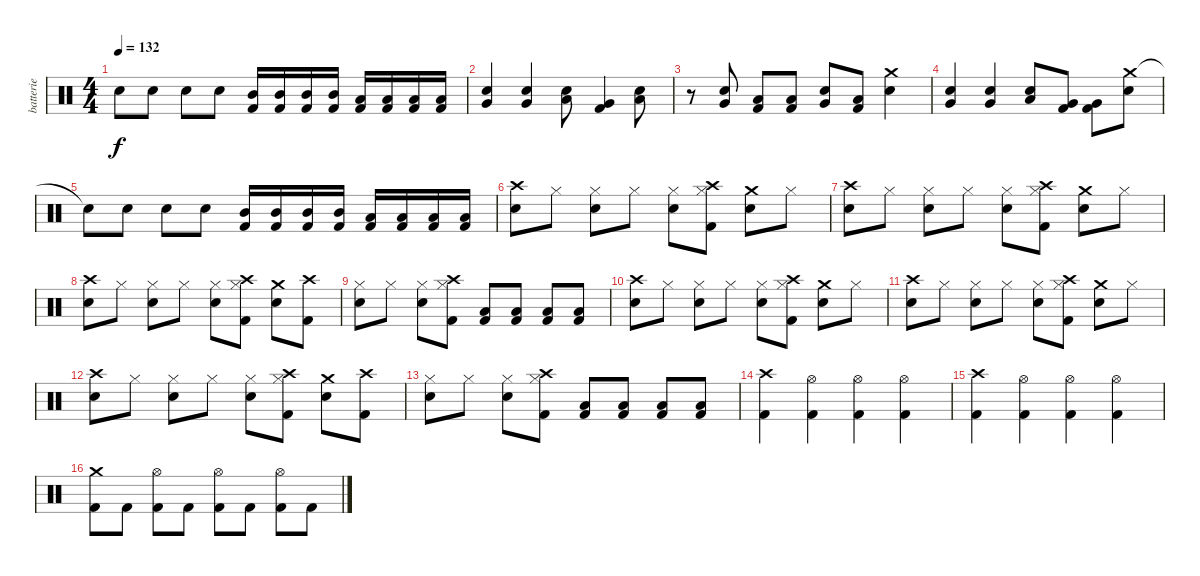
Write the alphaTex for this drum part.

\track ("batterie" "batterie") {instrument percussion}
\staff {score}
\articulation defaults
\ts (4 4)
\tempo 132
\clef neutral
\ks c "Snare (hit)"{t}.8{dy f} "Electric Snare (hit)".8 "Electric Snare (hit)".8 "Electric Snare (hit)".8
("Mid Tom (hit)" "Kick (hit) 2").16 ("Mid Tom (hit)" "Kick (hit) 2").16 ("Mid Tom (hit)" "Kick (hit) 2").16 ("Mid Tom (hit)" "Kick (hit) 2").16 ("Low Tom (hit)" "Kick (hit) 2").16 ("Low Tom (hit)" "Kick (hit) 2").16 ("Low Tom (hit)" "Kick (hit) 2").16 ("Low Tom (hit)" "Kick (hit) 2").16 |
("Very Low Tom (hit)" "Electric Snare (hit)").4 ("Very Low Tom (hit)" "Electric Snare (hit)").4 ("Low Tom (hit)" "Electric Snare (hit)").8 ("Very Low Tom (hit)" "Kick (hit) 2").4 ("Low Tom (hit)" "Electric Snare (hit)").8 |
r.8 ("Very Low Tom (hit)" "Electric Snare (hit)").8 ("Low Tom (hit)" "Kick (hit) 2").8 ("Low Tom (hit)" "Kick (hit) 2").8 ("Very Low Tom (hit)" "Electric Snare (hit)").8 ("Low Tom (hit)" "Kick (hit) 2").8 ("Crash medium (hit)" "Electric Snare (hit)").4 |
("Very Low Tom (hit)" "Electric Snare (hit)").4 ("Very Low Tom (hit)" "Electric Snare (hit)").4 ("Low Tom (hit)" "Electric Snare (hit)").8 ("Very Low Tom (hit)" "Kick (hit) 2").8 ("Very Low Tom (hit)" "Kick (hit) 2").8 ("Crash medium (hit)" "Electric Snare (hit)").8 |
"Snare (hit)"{t}.8 "Electric Snare (hit)".8 "Electric Snare (hit)".8 "Electric Snare (hit)".8 ("Mid Tom (hit)" "Kick (hit) 2").16 ("Mid Tom (hit)" "Kick (hit) 2").16 ("Mid Tom (hit)" "Kick (hit) 2").16 ("Mid Tom (hit)" "Kick (hit) 2").16 ("Low Tom (hit)" "Kick (hit) 2").16 ("Low Tom (hit)" "Kick (hit) 2").16 ("Low Tom (hit)" "Kick (hit) 2").16 ("Low Tom (hit)" "Kick (hit) 2").16 |
("Crash high (hit)" "Electric Snare (hit)").8 "Hi-Hat (closed)".8 ("Electric Snare (hit)" "Hi-Hat (closed)").8 "Hi-Hat (closed)".8 ("Electric Snare (hit)" "Hi-Hat (closed)").8 ("Crash high (hit)" "Kick (hit) 2" "Hi-Hat (closed)").8 ("Crash medium (hit)" "Electric Snare (hit)").8 "Hi-Hat (closed)".8 |
("Crash high (hit)" "Electric Snare (hit)").8 "Hi-Hat (closed)".8 ("Electric Snare (hit)" "Hi-Hat (closed)").8 "Hi-Hat (closed)".8 ("Electric Snare (hit)" "Hi-Hat (closed)").8 ("Crash high (hit)" "Kick (hit) 2" "Hi-Hat (closed)").8 ("Crash medium (hit)" "Electric Snare (hit)").8 "Hi-Hat (closed)".8 |
("Crash high (hit)" "Electric Snare (hit)").8 "Hi-Hat (closed)".8 ("Electric Snare (hit)" "Hi-Hat (closed)").8 "Hi-Hat (closed)".8 ("Electric Snare (hit)" "Hi-Hat (closed)").8 ("Crash high (hit)" "Kick (hit) 2" "Hi-Hat (closed)").8 ("Crash medium (hit)" "Electric Snare (hit)").8 ("Crash high (hit)" "Kick (hit) 2").8 |
("Electric Snare (hit)" "Hi-Hat (closed)").8 "Hi-Hat (closed)".8 ("Electric Snare (hit)" "Hi-Hat (closed)").8 ("Crash high (hit)" "Kick (hit) 2" "Hi-Hat (closed)").8 ("Low Tom (hit)" "Kick (hit) 2").8 ("Low Tom (hit)" "Kick (hit) 2").8 ("Low Tom (hit)" "Kick (hit) 2").8 ("Low Tom (hit)" "Kick (hit) 2").8 |
("Crash high (hit)" "Electric Snare (hit)").8 "Hi-Hat (closed)".8 ("Electric Snare (hit)" "Hi-Hat (closed)").8 "Hi-Hat (closed)".8 ("Electric Snare (hit)" "Hi-Hat (closed)").8 ("Crash high (hit)" "Kick (hit) 2" "Hi-Hat (closed)").8 ("Crash medium (hit)" "Electric Snare (hit)").8 "Hi-Hat (closed)".8 |
("Crash high (hit)" "Electric Snare (hit)").8 "Hi-Hat (closed)".8 ("Electric Snare (hit)" "Hi-Hat (closed)").8 "Hi-Hat (closed)".8 ("Electric Snare (hit)" "Hi-Hat (closed)").8 ("Crash high (hit)" "Kick (hit) 2" "Hi-Hat (closed)").8 ("Crash medium (hit)" "Electric Snare (hit)").8 "Hi-Hat (closed)".8 |
("Crash high (hit)" "Electric Snare (hit)").8 "Hi-Hat (closed)".8 ("Electric Snare (hit)" "Hi-Hat (closed)").8 "Hi-Hat (closed)".8 ("Electric Snare (hit)" "Hi-Hat (closed)").8 ("Crash high (hit)" "Kick (hit) 2" "Hi-Hat (closed)").8 ("Crash medium (hit)" "Electric Snare (hit)").8 ("Crash high (hit)" "Kick (hit) 2").8 |
("Electric Snare (hit)" "Hi-Hat (closed)").8 "Hi-Hat (closed)".8 ("Electric Snare (hit)" "Hi-Hat (closed)").8 ("Crash high (hit)" "Kick (hit) 2" "Hi-Hat (closed)").8 ("Low Tom (hit)" "Kick (hit) 2").8 ("Low Tom (hit)" "Kick (hit) 2").8 ("Low Tom (hit)" "Kick (hit) 2").8 ("Low Tom (hit)" "Kick (hit) 2").8 |
("Crash high (hit)" "Kick (hit) 2").4 ("Kick (hit) 2" "Hi-Hat (open)").4 ("Kick (hit) 2" "Hi-Hat (open)").4 ("Kick (hit) 2" "Hi-Hat (open)").4 |
("Crash high (hit)" "Kick (hit) 2").4 ("Kick (hit) 2" "Hi-Hat (open)").4 ("Kick (hit) 2" "Hi-Hat (open)").4 ("Kick (hit) 2" "Hi-Hat (open)").4 |
("Crash medium (hit)" "Kick (hit) 2").8 "Kick (hit) 2".8 ("Kick (hit) 2" "Hi-Hat (open)").8 "Kick (hit) 2".8 ("Kick (hit) 2" "Hi-Hat (open)").8 "Kick (hit) 2".8 ("Kick (hit) 2" "Hi-Hat (open)").8 "Kick (hit) 2".8
